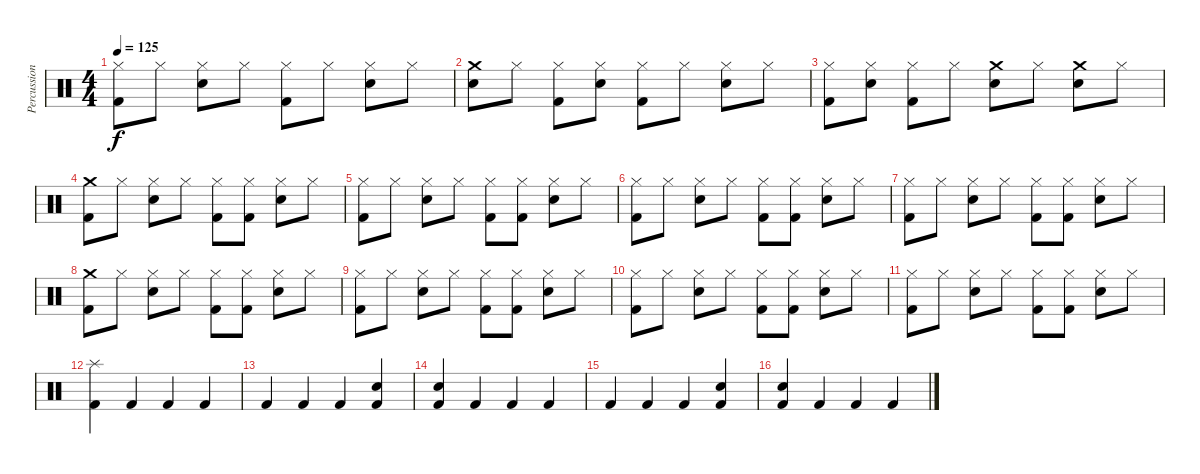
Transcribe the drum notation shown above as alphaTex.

\track ("Percussion" "Percussion") {instrument percussion}
\staff {score}
\articulation defaults
\ts (4 4)
\tempo 125
\clef neutral
\ks c
("Hi-Hat (closed)" "Kick (hit) 2").8{dy f} "Hi-Hat (closed)".8 ("Hi-Hat (closed)" "Snare (hit) 2").8 "Hi-Hat (closed)".8 ("Hi-Hat (closed)" "Kick (hit) 2").8 "Hi-Hat (closed)".8 ("Hi-Hat (closed)" "Snare (hit) 2").8 "Hi-Hat (closed)".8 |
("Crash medium (hit)" "Snare (hit) 2").8 "Hi-Hat (closed)".8 ("Hi-Hat (closed)" "Kick (hit) 2").8 ("Hi-Hat (closed)" "Snare (hit) 2").8 ("Hi-Hat (closed)" "Kick (hit) 2").8 "Hi-Hat (closed)".8 ("Hi-Hat (closed)" "Snare (hit) 2").8 "Hi-Hat (closed)".8 |
("Hi-Hat (closed)" "Kick (hit) 2").8 ("Hi-Hat (closed)" "Snare (hit) 2").8 ("Hi-Hat (closed)" "Kick (hit) 2").8 "Hi-Hat (closed)".8 ("Crash medium (hit)" "Snare (hit) 2").8 "Hi-Hat (closed)".8 ("Crash medium (hit)" "Snare (hit) 2").8 "Hi-Hat (closed)".8 |
("Crash medium (hit)" "Kick (hit) 2").8 "Hi-Hat (closed)".8 ("Hi-Hat (closed)" "Snare (hit) 2").8 "Hi-Hat (closed)".8 ("Hi-Hat (closed)" "Kick (hit) 2").8 ("Hi-Hat (closed)" "Kick (hit) 2").8 ("Hi-Hat (closed)" "Snare (hit) 2").8 "Hi-Hat (closed)".8 |
("Hi-Hat (closed)" "Kick (hit) 2").8 "Hi-Hat (closed)".8 ("Hi-Hat (closed)" "Snare (hit) 2").8 "Hi-Hat (closed)".8 ("Hi-Hat (closed)" "Kick (hit) 2").8 ("Hi-Hat (closed)" "Kick (hit) 2").8 ("Hi-Hat (closed)" "Snare (hit) 2").8 "Hi-Hat (closed)".8 |
("Hi-Hat (closed)" "Kick (hit) 2").8 "Hi-Hat (closed)".8 ("Hi-Hat (closed)" "Snare (hit) 2").8 "Hi-Hat (closed)".8 ("Hi-Hat (closed)" "Kick (hit) 2").8 ("Hi-Hat (closed)" "Kick (hit) 2").8 ("Hi-Hat (closed)" "Snare (hit) 2").8 "Hi-Hat (closed)".8 |
("Hi-Hat (closed)" "Kick (hit) 2").8 "Hi-Hat (closed)".8 ("Hi-Hat (closed)" "Snare (hit) 2").8 "Hi-Hat (closed)".8 ("Hi-Hat (closed)" "Kick (hit) 2").8 ("Hi-Hat (closed)" "Kick (hit) 2").8 ("Hi-Hat (closed)" "Snare (hit) 2").8 "Hi-Hat (closed)".8 |
("Crash medium (hit)" "Kick (hit) 2").8 "Hi-Hat (closed)".8 ("Hi-Hat (closed)" "Snare (hit) 2").8 "Hi-Hat (closed)".8 ("Hi-Hat (closed)" "Kick (hit) 2").8 ("Hi-Hat (closed)" "Kick (hit) 2").8 ("Hi-Hat (closed)" "Snare (hit) 2").8 "Hi-Hat (closed)".8 |
("Hi-Hat (closed)" "Kick (hit) 2").8 "Hi-Hat (closed)".8 ("Hi-Hat (closed)" "Snare (hit) 2").8 "Hi-Hat (closed)".8 ("Hi-Hat (closed)" "Kick (hit) 2").8 ("Hi-Hat (closed)" "Kick (hit) 2").8 ("Hi-Hat (closed)" "Snare (hit) 2").8 "Hi-Hat (closed)".8 |
("Hi-Hat (closed)" "Kick (hit) 2").8 "Hi-Hat (closed)".8 ("Hi-Hat (closed)" "Snare (hit) 2").8 "Hi-Hat (closed)".8 ("Hi-Hat (closed)" "Kick (hit) 2").8 ("Hi-Hat (closed)" "Kick (hit) 2").8 ("Hi-Hat (closed)" "Snare (hit) 2").8 "Hi-Hat (closed)".8 |
("Hi-Hat (closed)" "Kick (hit) 2").8 "Hi-Hat (closed)".8 ("Hi-Hat (closed)" "Snare (hit) 2").8 "Hi-Hat (closed)".8 ("Hi-Hat (closed)" "Kick (hit) 2").8 ("Hi-Hat (closed)" "Kick (hit) 2").8 ("Hi-Hat (closed)" "Snare (hit) 2").8 "Hi-Hat (closed)".8 |
("Splash (hit)" "Kick (hit) 2").4 "Kick (hit) 2".4 "Kick (hit) 2".4 "Kick (hit) 2".4 |
"Kick (hit) 2".4 "Kick (hit) 2".4 "Kick (hit) 2".4 ("Snare (hit) 2" "Kick (hit) 2").4 |
("Snare (hit) 2" "Kick (hit) 2").4 "Kick (hit) 2".4 "Kick (hit) 2".4 "Kick (hit) 2".4 |
"Kick (hit) 2".4 "Kick (hit) 2".4 "Kick (hit) 2".4 ("Snare (hit) 2" "Kick (hit) 2").4 |
("Snare (hit) 2" "Kick (hit) 2").4 "Kick (hit) 2".4 "Kick (hit) 2".4 "Kick (hit) 2".4
